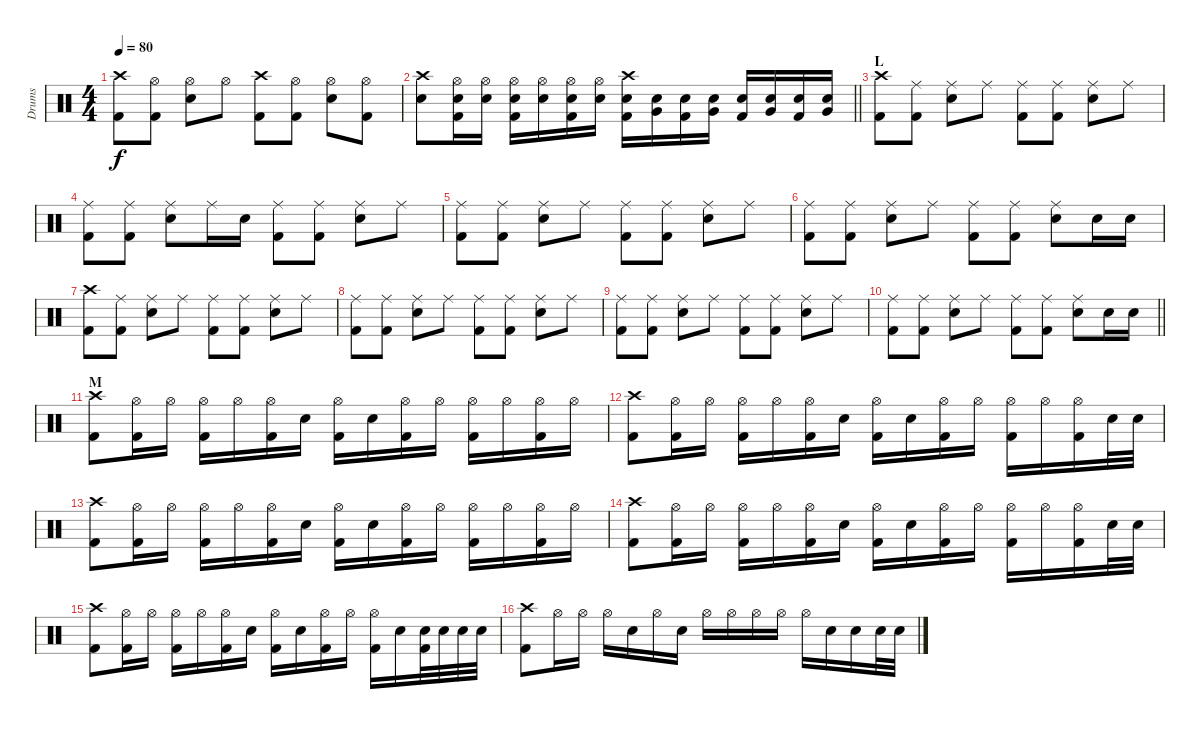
\track ("Drums" "Drums") {instrument percussion}
\staff {score}
\articulation defaults
\ts (4 4)
\tempo 80
\clef neutral
\ks c
("Crash high (hit)" "Kick (hit) 2").8{dy f} ("Hi-Hat (open)" "Kick (hit) 2").8 ("Hi-Hat (open)" "Snare (hit) 2").8 "Hi-Hat (open)".8 ("Crash high (hit)" "Kick (hit) 2").8 ("Hi-Hat (open)" "Kick (hit) 2").8 ("Hi-Hat (open)" "Snare (hit) 2").8 ("Hi-Hat (open)" "Kick (hit) 2").8 |
\barLineRight lightlight
("Crash high (hit)" "Snare (hit) 2").8 ("Hi-Hat (open)" "Snare (hit) 2" "Kick (hit) 2").16 ("Hi-Hat (open)" "Snare (hit) 2").16 ("Hi-Hat (open)" "Snare (hit) 2" "Kick (hit) 2").16 ("Hi-Hat (open)" "Snare (hit) 2").16 ("Hi-Hat (open)" "Snare (hit) 2" "Kick (hit) 2").16 ("Hi-Hat (open)" "Snare (hit) 2").16 ("Crash high (hit)" "Snare (hit) 2" "Kick (hit) 2").16 ("Snare (hit) 2" "Very Low Tom (hit)").16 ("Snare (hit) 2" "Kick (hit) 2").16 ("Snare (hit) 2" "Very Low Tom (hit)").16 ("Snare (hit) 2" "Kick (hit) 2").16 ("Snare (hit) 2" "Very Low Tom (hit)").16 ("Snare (hit) 2" "Kick (hit) 2").16 ("Snare (hit) 2" "Very Low Tom (hit)").16 |
\section ("" "L")
("Crash high (hit)" "Kick (hit) 2").8 ("Ride (middle)" "Kick (hit) 2").8 ("Ride (middle)" "Snare (hit) 2").8 "Ride (middle)".8 ("Ride (middle)" "Kick (hit) 2").8 ("Ride (middle)" "Kick (hit) 2").8 ("Ride (middle)" "Snare (hit) 2").8 "Ride (middle)".8 |
("Ride (middle)" "Kick (hit) 2").8 ("Ride (middle)" "Kick (hit) 2").8 ("Ride (middle)" "Snare (hit) 2").8 "Ride (middle)".16 "Snare (hit) 2".16 ("Ride (middle)" "Kick (hit) 2").8 ("Ride (middle)" "Kick (hit) 2").8 ("Ride (middle)" "Snare (hit) 2").8 "Ride (middle)".8 |
("Ride (middle)" "Kick (hit) 2").8 ("Ride (middle)" "Kick (hit) 2").8 ("Ride (middle)" "Snare (hit) 2").8 "Ride (middle)".8 ("Ride (middle)" "Kick (hit) 2").8 ("Ride (middle)" "Kick (hit) 2").8 ("Ride (middle)" "Snare (hit) 2").8 "Ride (middle)".8 |
("Ride (middle)" "Kick (hit) 2").8 ("Ride (middle)" "Kick (hit) 2").8 ("Ride (middle)" "Snare (hit) 2").8 "Ride (middle)".8 ("Ride (middle)" "Kick (hit) 2").8 ("Ride (middle)" "Kick (hit) 2").8 ("Ride (middle)" "Snare (hit) 2").8 "Snare (hit) 2".16 "Snare (hit) 2".16 |
("Crash high (hit)" "Kick (hit) 2").8 ("Ride (middle)" "Kick (hit) 2").8 ("Ride (middle)" "Snare (hit) 2").8 "Ride (middle)".8 ("Ride (middle)" "Kick (hit) 2").8 ("Ride (middle)" "Kick (hit) 2").8 ("Ride (middle)" "Snare (hit) 2").8 "Ride (middle)".8 |
("Ride (middle)" "Kick (hit) 2").8 ("Ride (middle)" "Kick (hit) 2").8 ("Ride (middle)" "Snare (hit) 2").8 "Ride (middle)".8 ("Ride (middle)" "Kick (hit) 2").8 ("Ride (middle)" "Kick (hit) 2").8 ("Ride (middle)" "Snare (hit) 2").8 "Ride (middle)".8 |
("Ride (middle)" "Kick (hit) 2").8 ("Ride (middle)" "Kick (hit) 2").8 ("Ride (middle)" "Snare (hit) 2").8 "Ride (middle)".8 ("Ride (middle)" "Kick (hit) 2").8 ("Ride (middle)" "Kick (hit) 2").8 ("Ride (middle)" "Snare (hit) 2").8 "Ride (middle)".8 |
\barLineRight lightlight
("Ride (middle)" "Kick (hit) 2").8 ("Ride (middle)" "Kick (hit) 2").8 ("Ride (middle)" "Snare (hit) 2").8 "Ride (middle)".8 ("Ride (middle)" "Kick (hit) 2").8 ("Ride (middle)" "Kick (hit) 2").8 ("Ride (middle)" "Snare (hit) 2").8 "Snare (hit) 2".16 "Snare (hit) 2".16 |
\section ("" "M")
("Crash high (hit)" "Kick (hit) 2").8 ("Hi-Hat (open)" "Kick (hit) 2").16 "Hi-Hat (open)".16 ("Hi-Hat (open)" "Kick (hit) 2").16 "Hi-Hat (open)".16 ("Hi-Hat (open)" "Kick (hit) 2").16 "Snare (hit) 2".16 ("Hi-Hat (open)" "Kick (hit) 2").16 "Snare (hit) 2".16 ("Hi-Hat (open)" "Kick (hit) 2").16 "Hi-Hat (open)".16 ("Hi-Hat (open)" "Kick (hit) 2").16 "Hi-Hat (open)".16 ("Hi-Hat (open)" "Kick (hit) 2").16 "Hi-Hat (open)".16 |
("Crash high (hit)" "Kick (hit) 2").8 ("Hi-Hat (open)" "Kick (hit) 2").16 "Hi-Hat (open)".16 ("Hi-Hat (open)" "Kick (hit) 2").16 "Hi-Hat (open)".16 ("Hi-Hat (open)" "Kick (hit) 2").16 "Snare (hit) 2".16 ("Hi-Hat (open)" "Kick (hit) 2").16 "Snare (hit) 2".16 ("Hi-Hat (open)" "Kick (hit) 2").16 "Hi-Hat (open)".16 ("Hi-Hat (open)" "Kick (hit) 2").16 "Hi-Hat (open)".16 ("Hi-Hat (open)" "Kick (hit) 2").16 "Snare (hit) 2".32 "Snare (hit) 2".32 |
("Crash high (hit)" "Kick (hit) 2").8 ("Hi-Hat (open)" "Kick (hit) 2").16 "Hi-Hat (open)".16 ("Hi-Hat (open)" "Kick (hit) 2").16 "Hi-Hat (open)".16 ("Hi-Hat (open)" "Kick (hit) 2").16 "Snare (hit) 2".16 ("Hi-Hat (open)" "Kick (hit) 2").16 "Snare (hit) 2".16 ("Hi-Hat (open)" "Kick (hit) 2").16 "Hi-Hat (open)".16 ("Hi-Hat (open)" "Kick (hit) 2").16 "Hi-Hat (open)".16 ("Hi-Hat (open)" "Kick (hit) 2").16 "Hi-Hat (open)".16 |
("Crash high (hit)" "Kick (hit) 2").8 ("Hi-Hat (open)" "Kick (hit) 2").16 "Hi-Hat (open)".16 ("Hi-Hat (open)" "Kick (hit) 2").16 "Hi-Hat (open)".16 ("Hi-Hat (open)" "Kick (hit) 2").16 "Snare (hit) 2".16 ("Hi-Hat (open)" "Kick (hit) 2").16 "Snare (hit) 2".16 ("Hi-Hat (open)" "Kick (hit) 2").16 "Hi-Hat (open)".16 ("Hi-Hat (open)" "Kick (hit) 2").16 "Hi-Hat (open)".16 ("Hi-Hat (open)" "Kick (hit) 2").16 "Snare (hit) 2".32 "Snare (hit) 2".32 |
("Crash high (hit)" "Kick (hit) 2").8 ("Hi-Hat (open)" "Kick (hit) 2").16 "Hi-Hat (open)".16 ("Hi-Hat (open)" "Kick (hit) 2").16 "Hi-Hat (open)".16 ("Hi-Hat (open)" "Kick (hit) 2").16 "Snare (hit) 2".16 ("Hi-Hat (open)" "Kick (hit) 2").16 "Snare (hit) 2".16 ("Hi-Hat (open)" "Kick (hit) 2").16 "Hi-Hat (open)".16 ("Hi-Hat (open)" "Kick (hit) 2").16 "Snare (hit) 2".16 ("Snare (hit) 2" "Kick (hit) 2").32 "Snare (hit) 2".32 "Snare (hit) 2".32 "Snare (hit) 2".32 |
("Crash high (hit)" "Kick (hit) 2").8 "Hi-Hat (open)".16 "Hi-Hat (open)".16 "Hi-Hat (open)".16 "Snare (hit) 2".16 "Hi-Hat (open)".16 "Snare (hit) 2".16 "Hi-Hat (open)".16 "Hi-Hat (open)".16 "Hi-Hat (open)".16 "Hi-Hat (open)".16 "Hi-Hat (open)".16 "Snare (hit) 2".16 "Snare (hit) 2".16 "Snare (hit) 2".32 "Snare (hit) 2".32
